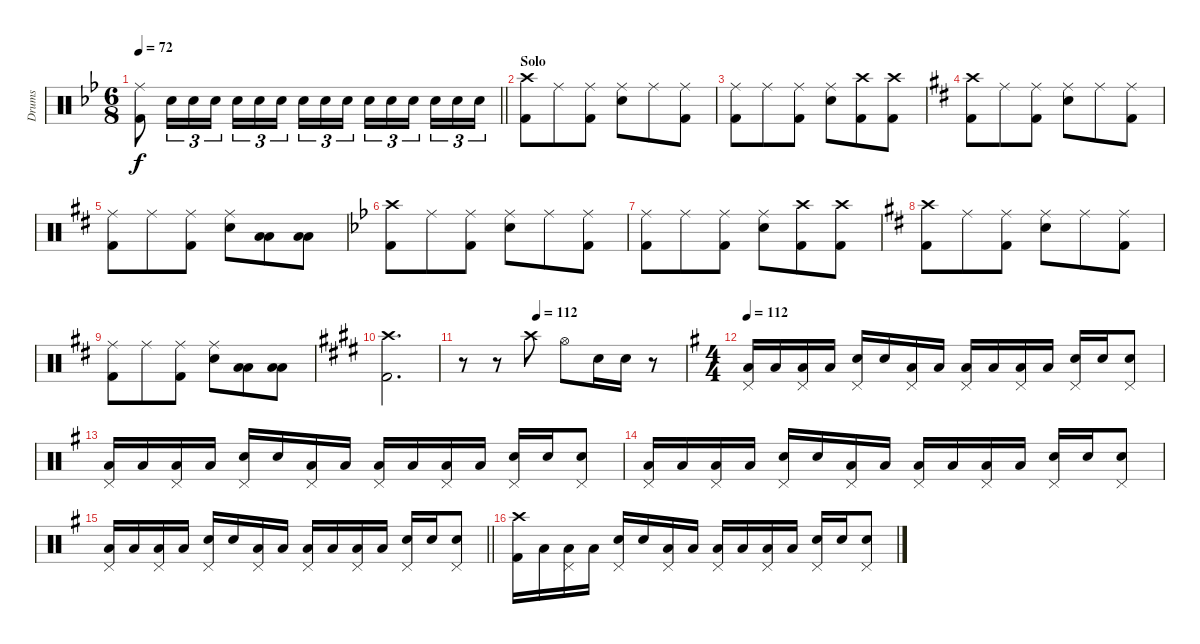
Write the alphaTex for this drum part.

\track ("Drums" "Drums") {instrument percussion}
\staff {score}
\articulation defaults
\ts (6 8)
\tempo 72
\clef neutral
\barLineRight lightlight
\ks bb
("Ride (middle)" "Kick (hit) 2").8{dy f} "Electric Snare (hit)".16{tu (3 2)} "Electric Snare (hit)".16{tu (3 2)} "Electric Snare (hit)".16{tu (3 2) beam splitsecondary} "Electric Snare (hit)".16{tu (3 2)} "Electric Snare (hit)".16{tu (3 2)} "Electric Snare (hit)".16{tu (3 2)} "Electric Snare (hit)".16{tu (3 2)} "Electric Snare (hit)".16{tu (3 2)} "Electric Snare (hit)".16{tu (3 2) beam splitsecondary} "Electric Snare (hit)".16{tu (3 2)} "Electric Snare (hit)".16{tu (3 2)} "Electric Snare (hit)".16{tu (3 2) beam splitsecondary} "Electric Snare (hit)".16{tu (3 2)} "Electric Snare (hit)".16{tu (3 2)} "Electric Snare (hit)".16{tu (3 2)} |
\section ("" "Solo")
("Crash high (hit)" "Kick (hit) 2").8 "Ride (middle)".8 ("Ride (middle)" "Kick (hit) 2").8 ("Ride (middle)" "Electric Snare (hit)").8 "Ride (middle)".8 ("Ride (middle)" "Kick (hit) 2").8 |
("Ride (middle)" "Kick (hit) 2").8 "Ride (middle)".8 ("Ride (middle)" "Kick (hit) 2").8 ("Ride (middle)" "Electric Snare (hit)").8 ("Crash high (hit)" "Kick (hit) 2").8 ("Crash high (hit)" "Kick (hit) 2").8 |
\ks d
("Crash high (hit)" "Kick (hit) 2").8 "Ride (middle)".8 ("Ride (middle)" "Kick (hit) 2").8 ("Ride (middle)" "Electric Snare (hit)").8 "Ride (middle)".8 ("Ride (middle)" "Kick (hit) 2").8 |
("Ride (middle)" "Kick (hit) 2").8 "Ride (middle)".8 ("Ride (middle)" "Kick (hit) 2").8 ("Ride (middle)" "Electric Snare (hit)").8 ("Low Tom (hit)" "Low Floor Tom (hit)").8 ("Low Tom (hit)" "Low Floor Tom (hit)").8 |
\ks bb
("Crash high (hit)" "Kick (hit) 2").8 "Ride (middle)".8 ("Ride (middle)" "Kick (hit) 2").8 ("Ride (middle)" "Electric Snare (hit)").8 "Ride (middle)".8 ("Ride (middle)" "Kick (hit) 2").8 |
("Ride (middle)" "Kick (hit) 2").8 "Ride (middle)".8 ("Ride (middle)" "Kick (hit) 2").8 ("Ride (middle)" "Electric Snare (hit)").8 ("Crash high (hit)" "Kick (hit) 2").8 ("Crash high (hit)" "Kick (hit) 2").8 |
\ks d
("Crash high (hit)" "Kick (hit) 2").8 "Ride (middle)".8 ("Ride (middle)" "Kick (hit) 2").8 ("Ride (middle)" "Electric Snare (hit)").8 "Ride (middle)".8 ("Ride (middle)" "Kick (hit) 2").8 |
("Ride (middle)" "Kick (hit) 2").8 "Ride (middle)".8 ("Ride (middle)" "Kick (hit) 2").8 ("Ride (middle)" "Electric Snare (hit)").8 ("Low Tom (hit)" "Low Floor Tom (hit)").8 ("Low Tom (hit)" "Low Floor Tom (hit)").8 |
\ks e
("Crash high (hit)" "Kick (hit) 2").2{d} |
\tempo (112 0.3333333333333333)
\ks c#minor
r.8 r.8 "Crash high (hit)".8 "Hi-Hat (open)".8 "Electric Snare (hit)".16 "Electric Snare (hit)".16 r.8 |
\ts (4 4)
\tempo 112
\ks g
("Pedal Hi-Hat (hit)" "Low Floor Tom (hit)").16 "Low Floor Tom (hit)".16 ("Pedal Hi-Hat (hit)" "Low Floor Tom (hit)").16 "Low Floor Tom (hit)".16 ("Pedal Hi-Hat (hit)" "Electric Snare (hit)").16 "Electric Snare (hit)".16 ("Pedal Hi-Hat (hit)" "Low Floor Tom (hit)").16 "Low Floor Tom (hit)".16 ("Pedal Hi-Hat (hit)" "Low Floor Tom (hit)").16 "Low Floor Tom (hit)".16 ("Pedal Hi-Hat (hit)" "Low Floor Tom (hit)").16 "Low Floor Tom (hit)".16 ("Pedal Hi-Hat (hit)" "Electric Snare (hit)").16 "Electric Snare (hit)".16 ("Pedal Hi-Hat (hit)" "Electric Snare (hit)").8 |
("Pedal Hi-Hat (hit)" "Low Floor Tom (hit)").16 "Low Floor Tom (hit)".16 ("Pedal Hi-Hat (hit)" "Low Floor Tom (hit)").16 "Low Floor Tom (hit)".16 ("Pedal Hi-Hat (hit)" "Electric Snare (hit)").16 "Electric Snare (hit)".16 ("Pedal Hi-Hat (hit)" "Low Floor Tom (hit)").16 "Low Floor Tom (hit)".16 ("Pedal Hi-Hat (hit)" "Low Floor Tom (hit)").16 "Low Floor Tom (hit)".16 ("Pedal Hi-Hat (hit)" "Low Floor Tom (hit)").16 "Low Floor Tom (hit)".16 ("Pedal Hi-Hat (hit)" "Electric Snare (hit)").16 "Electric Snare (hit)".16 ("Pedal Hi-Hat (hit)" "Electric Snare (hit)").8 |
("Pedal Hi-Hat (hit)" "Low Floor Tom (hit)").16 "Low Floor Tom (hit)".16 ("Pedal Hi-Hat (hit)" "Low Floor Tom (hit)").16 "Low Floor Tom (hit)".16 ("Pedal Hi-Hat (hit)" "Electric Snare (hit)").16 "Electric Snare (hit)".16 ("Pedal Hi-Hat (hit)" "Low Floor Tom (hit)").16 "Low Floor Tom (hit)".16 ("Pedal Hi-Hat (hit)" "Low Floor Tom (hit)").16 "Low Floor Tom (hit)".16 ("Pedal Hi-Hat (hit)" "Low Floor Tom (hit)").16 "Low Floor Tom (hit)".16 ("Pedal Hi-Hat (hit)" "Electric Snare (hit)").16 "Electric Snare (hit)".16 ("Pedal Hi-Hat (hit)" "Electric Snare (hit)").8 |
\barLineRight lightlight
("Pedal Hi-Hat (hit)" "Low Floor Tom (hit)").16 "Low Floor Tom (hit)".16 ("Pedal Hi-Hat (hit)" "Low Floor Tom (hit)").16 "Low Floor Tom (hit)".16 ("Pedal Hi-Hat (hit)" "Electric Snare (hit)").16 "Electric Snare (hit)".16 ("Pedal Hi-Hat (hit)" "Low Floor Tom (hit)").16 "Low Floor Tom (hit)".16 ("Pedal Hi-Hat (hit)" "Low Floor Tom (hit)").16 "Low Floor Tom (hit)".16 ("Pedal Hi-Hat (hit)" "Low Floor Tom (hit)").16 "Low Floor Tom (hit)".16 ("Pedal Hi-Hat (hit)" "Electric Snare (hit)").16 "Electric Snare (hit)".16 ("Pedal Hi-Hat (hit)" "Electric Snare (hit)").8 |
("Crash high (hit)" "Kick (hit) 2").16 "Low Floor Tom (hit)".16 ("Pedal Hi-Hat (hit)" "Low Floor Tom (hit)").16 "Low Floor Tom (hit)".16 ("Pedal Hi-Hat (hit)" "Electric Snare (hit)").16 "Electric Snare (hit)".16 ("Pedal Hi-Hat (hit)" "Low Floor Tom (hit)").16 "Low Floor Tom (hit)".16 ("Pedal Hi-Hat (hit)" "Low Floor Tom (hit)").16 "Low Floor Tom (hit)".16 ("Pedal Hi-Hat (hit)" "Low Floor Tom (hit)").16 "Low Floor Tom (hit)".16 ("Pedal Hi-Hat (hit)" "Electric Snare (hit)").16 "Electric Snare (hit)".16 ("Pedal Hi-Hat (hit)" "Electric Snare (hit)").8
